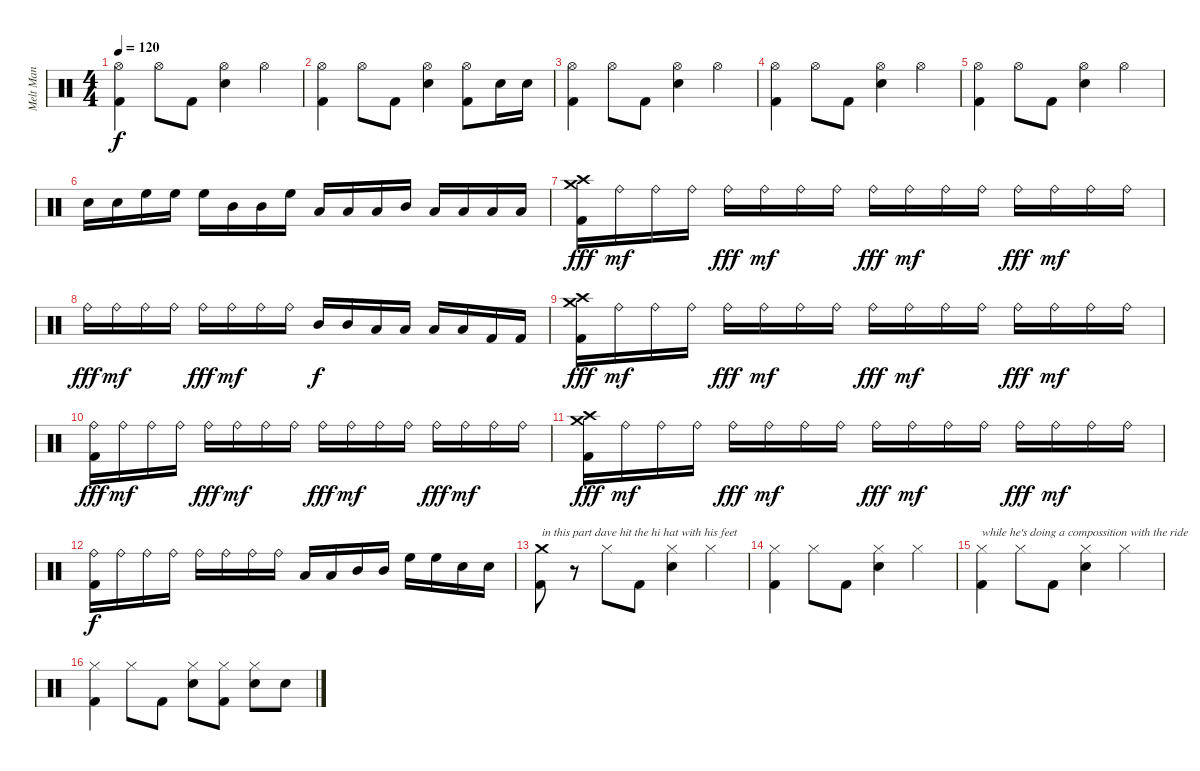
\track ("Melt Man" "Melt Man") {instrument percussion}
\staff {score}
\articulation defaults
\ts (4 4)
\tempo 120
\clef neutral
\ks c
("Hi-Hat (open)" "Kick (hit) 2").4{dy f} "Hi-Hat (open)".8 "Kick (hit) 2".8 ("Hi-Hat (open)" "Snare (hit) 2").4 "Hi-Hat (open)".4 |
("Hi-Hat (open)" "Kick (hit) 2").4 "Hi-Hat (open)".8 "Kick (hit) 2".8 ("Hi-Hat (open)" "Snare (hit) 2").4 ("Hi-Hat (open)" "Kick (hit) 2").8 "Snare (hit) 2".16 "Snare (hit) 2".16 |
("Hi-Hat (open)" "Kick (hit) 2").4 "Hi-Hat (open)".8 "Kick (hit) 2".8 ("Hi-Hat (open)" "Snare (hit) 2").4 "Hi-Hat (open)".4 |
("Hi-Hat (open)" "Kick (hit) 2").4 "Hi-Hat (open)".8 "Kick (hit) 2".8 ("Hi-Hat (open)" "Snare (hit) 2").4 "Hi-Hat (open)".4 |
("Hi-Hat (open)" "Kick (hit) 2").4 "Hi-Hat (open)".8 "Kick (hit) 2".8 ("Hi-Hat (open)" "Snare (hit) 2").4 "Hi-Hat (open)".4 |
"Snare (hit) 2".16 "Snare (hit) 2".16 "High Floor Tom (hit)".16 "High Floor Tom (hit)".16 "High Floor Tom (hit)".16 "Mid Tom (hit)".16 "Mid Tom (hit)".16 "High Floor Tom (hit)".16 "Low Tom (hit)".16 "Low Tom (hit)".16 "Low Tom (hit)".16 "Mid Tom (hit)".16 "Low Floor Tom (hit)".16 "Low Floor Tom (hit)".16 "Low Floor Tom (hit)".16 "Low Tom (hit)".16 |
("Crash medium (hit)" "Crash high (hit)" "Kick (hit) 2").16{dy fff} "Ride (bell)".16{dy mf} "Ride (bell)".16 "Ride (bell)".16 "Ride (bell)".16{dy fff} "Ride (bell)".16{dy mf} "Ride (bell)".16 "Ride (bell)".16 "Ride (bell)".16{dy fff} "Ride (bell)".16{dy mf} "Ride (bell)".16 "Ride (bell)".16 "Ride (bell)".16{dy fff} "Ride (bell)".16{dy mf} "Ride (bell)".16 "Ride (bell)".16 |
"Ride (bell)".16{dy fff} "Ride (bell)".16{dy mf} "Ride (bell)".16 "Ride (bell)".16 "Ride (bell)".16{dy fff} "Ride (bell)".16{dy mf} "Ride (bell)".16 "Ride (bell)".16 "Mid Tom (hit)".16{dy f} "Mid Tom (hit)".16 "Low Tom (hit)".16 "Low Tom (hit)".16 "Low Floor Tom (hit)".16 "Low Floor Tom (hit)".16 "Kick (hit) 2".16 "Kick (hit) 2".16 |
("Crash medium (hit)" "Crash high (hit)" "Kick (hit) 2").16{dy fff} "Ride (bell)".16{dy mf} "Ride (bell)".16 "Ride (bell)".16 "Ride (bell)".16{dy fff} "Ride (bell)".16{dy mf} "Ride (bell)".16 "Ride (bell)".16 "Ride (bell)".16{dy fff} "Ride (bell)".16{dy mf} "Ride (bell)".16 "Ride (bell)".16 "Ride (bell)".16{dy fff} "Ride (bell)".16{dy mf} "Ride (bell)".16 "Ride (bell)".16 |
("Ride (bell)" "Kick (hit) 2").16{dy fff} "Ride (bell)".16{dy mf} "Ride (bell)".16 "Ride (bell)".16 "Ride (bell)".16{dy fff} "Ride (bell)".16{dy mf} "Ride (bell)".16 "Ride (bell)".16 "Ride (bell)".16{dy fff} "Ride (bell)".16{dy mf} "Ride (bell)".16 "Ride (bell)".16 "Ride (bell)".16{dy fff} "Ride (bell)".16{dy mf} "Ride (bell)".16 "Ride (bell)".16 |
("Crash medium (hit)" "Crash high (hit)" "Kick (hit) 2").16{dy fff} "Ride (bell)".16{dy mf} "Ride (bell)".16 "Ride (bell)".16 "Ride (bell)".16{dy fff} "Ride (bell)".16{dy mf} "Ride (bell)".16 "Ride (bell)".16 "Ride (bell)".16{dy fff} "Ride (bell)".16{dy mf} "Ride (bell)".16 "Ride (bell)".16 "Ride (bell)".16{dy fff} "Ride (bell)".16{dy mf} "Ride (bell)".16 "Ride (bell)".16 |
("Ride (bell)" "Kick (hit) 2").16{dy f} "Ride (bell)".16 "Ride (bell)".16 "Ride (bell)".16 "Ride (bell)".16 "Ride (bell)".16 "Ride (bell)".16 "Ride (bell)".16 "Low Tom (hit)".16 "Low Tom (hit)".16 "Mid Tom (hit)".16 "Mid Tom (hit)".16 "High Floor Tom (hit)".16 "High Floor Tom (hit)".16 "Snare (hit) 2".16 "Snare (hit) 2".16 |
("Crash medium (hit)" "Kick (hit) 2").8{txt "in this part dave hit the hi hat with his feet"} r.8 "Hi-Hat (closed)".8 "Kick (hit) 2".8 ("Hi-Hat (closed)" "Snare (hit) 2").4 "Hi-Hat (closed)".4 |
("Hi-Hat (closed)" "Kick (hit) 2").4 "Hi-Hat (closed)".8 "Kick (hit) 2".8 ("Hi-Hat (closed)" "Snare (hit) 2").4 "Hi-Hat (closed)".4 |
("Hi-Hat (closed)" "Kick (hit) 2").4{txt "while he's doing a compossition with the ride"} "Hi-Hat (closed)".8 "Kick (hit) 2".8 ("Hi-Hat (closed)" "Snare (hit) 2").4 "Hi-Hat (closed)".4 |
("Hi-Hat (closed)" "Kick (hit) 2").4 "Hi-Hat (closed)".8 "Kick (hit) 2".8 ("Hi-Hat (closed)" "Snare (hit) 2").8 ("Hi-Hat (closed)" "Kick (hit) 2").8 ("Hi-Hat (closed)" "Snare (hit) 2").8 "Snare (hit) 2".8
